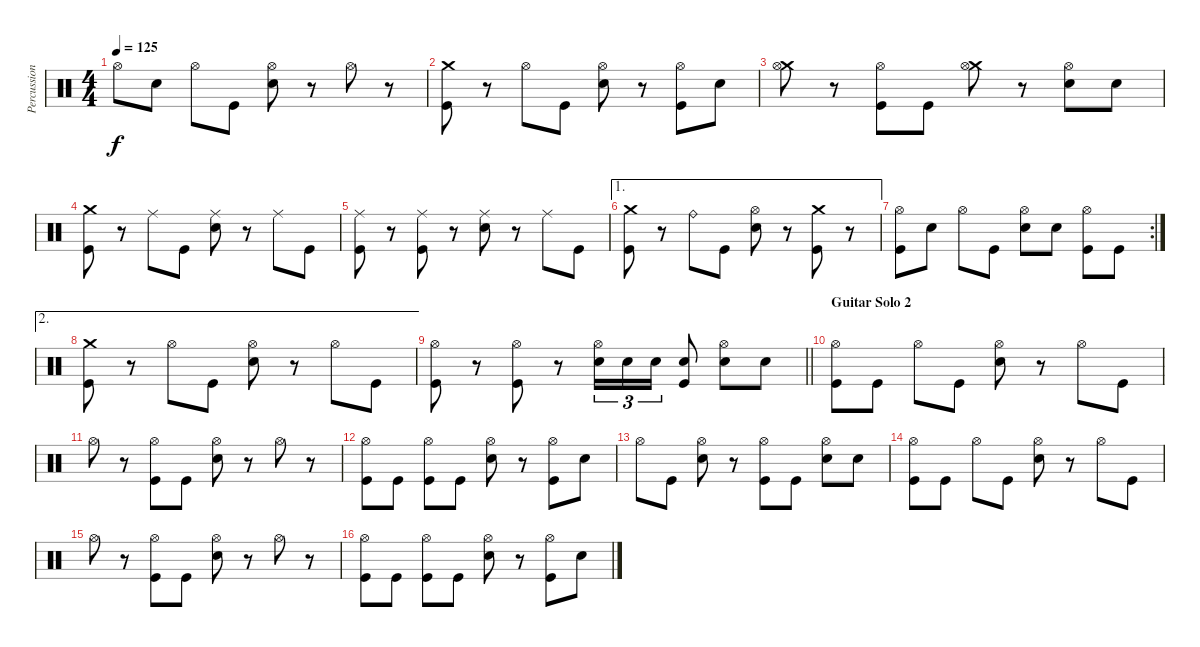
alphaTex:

\track ("Percussion" "Percussion") {instrument percussion}
\staff {score}
\articulation defaults
\ts (4 4)
\tempo 125
\clef neutral
\ks c "Hi-Hat (open)".8{dy f} "Snare (hit) 2".8 "Hi-Hat (open)".8 "Kick (hit)".8
("Hi-Hat (open)" "Snare (hit) 2").8 r.8 "Hi-Hat (open)".8 r.8 |
("Crash medium (hit)" "Kick (hit)").8 r.8 "Hi-Hat (open)".8 "Kick (hit)".8 ("Hi-Hat (open)" "Snare (hit) 2").8 r.8 ("Hi-Hat (open)" "Kick (hit)").8 "Snare (hit) 2".8 |
("Crash medium (hit)" "Hi-Hat (open)").8 r.8 ("Hi-Hat (open)" "Kick (hit)").8 "Kick (hit)".8 ("Crash medium (hit)" "Hi-Hat (open)").8 r.8 ("Hi-Hat (open)" "Snare (hit) 2").8 "Snare (hit) 2".8 |
("Crash medium (hit)" "Kick (hit)").8 r.8 "Ride (middle)".8 "Kick (hit)".8 ("Ride (middle)" "Snare (hit) 2").8 r.8 "Ride (middle)".8 "Kick (hit)".8 |
("Ride (middle)" "Kick (hit)").8 r.8 ("Ride (middle)" "Kick (hit)").8 r.8 ("Ride (middle)" "Snare (hit) 2").8 r.8 "Ride (middle)".8 "Kick (hit)".8 |
\ae 1
("Crash medium (hit)" "Kick (hit)").8 r.8 "Ride (bell)".8 "Kick (hit)".8 ("Hi-Hat (open)" "Snare (hit) 2").8 r.8 ("Crash medium (hit)" "Kick (hit)").8 r.8 |
\rc 2
("Hi-Hat (open)" "Kick (hit)").8 "Snare (hit) 2".8 "Hi-Hat (open)".8 "Kick (hit)".8 ("Hi-Hat (open)" "Snare (hit) 2").8 "Snare (hit) 2".8 ("Hi-Hat (open)" "Kick (hit)").8 "Kick (hit)".8 |
\ae 2
("Crash medium (hit)" "Kick (hit)").8 r.8 "Hi-Hat (open)".8 "Kick (hit)".8 ("Hi-Hat (open)" "Snare (hit) 2").8 r.8 "Hi-Hat (open)".8 "Kick (hit)".8 |
\barLineRight lightlight
("Hi-Hat (open)" "Kick (hit)").8 r.8 ("Hi-Hat (open)" "Kick (hit)").8 r.8 ("Hi-Hat (open)" "Snare (hit) 2").16{tu (3 2)} "Snare (hit) 2".16{tu (3 2)} "Snare (hit) 2".16{tu (3 2)} ("Snare (hit) 2" "Kick (hit)").8 ("Hi-Hat (open)" "Snare (hit) 2").8 "Snare (hit) 2".8 |
\section ("" "Guitar Solo 2")
("Hi-Hat (open)" "Kick (hit)").8 "Kick (hit)".8 "Hi-Hat (open)".8 "Kick (hit)".8 ("Hi-Hat (open)" "Snare (hit) 2").8 r.8 "Hi-Hat (open)".8 "Kick (hit)".8 |
"Hi-Hat (open)".8 r.8 ("Hi-Hat (open)" "Kick (hit)").8 "Kick (hit)".8 ("Hi-Hat (open)" "Snare (hit) 2").8 r.8 "Hi-Hat (open)".8 r.8 |
("Hi-Hat (open)" "Kick (hit)").8 "Kick (hit)".8 ("Hi-Hat (open)" "Kick (hit)").8 "Kick (hit)".8 ("Hi-Hat (open)" "Snare (hit) 2").8 r.8 ("Hi-Hat (open)" "Kick (hit)").8 "Snare (hit) 2".8 |
"Hi-Hat (open)".8 "Kick (hit)".8 ("Hi-Hat (open)" "Snare (hit) 2").8 r.8 ("Hi-Hat (open)" "Kick (hit)").8 "Kick (hit)".8 ("Hi-Hat (open)" "Snare (hit) 2").8 "Snare (hit) 2".8 |
("Hi-Hat (open)" "Kick (hit)").8 "Kick (hit)".8 "Hi-Hat (open)".8 "Kick (hit)".8 ("Hi-Hat (open)" "Snare (hit) 2").8 r.8 "Hi-Hat (open)".8 "Kick (hit)".8 |
"Hi-Hat (open)".8 r.8 ("Hi-Hat (open)" "Kick (hit)").8 "Kick (hit)".8 ("Hi-Hat (open)" "Snare (hit) 2").8 r.8 "Hi-Hat (open)".8 r.8 |
("Hi-Hat (open)" "Kick (hit)").8 "Kick (hit)".8 ("Hi-Hat (open)" "Kick (hit)").8 "Kick (hit)".8 ("Hi-Hat (open)" "Snare (hit) 2").8 r.8 ("Hi-Hat (open)" "Kick (hit)").8 "Snare (hit) 2".8
